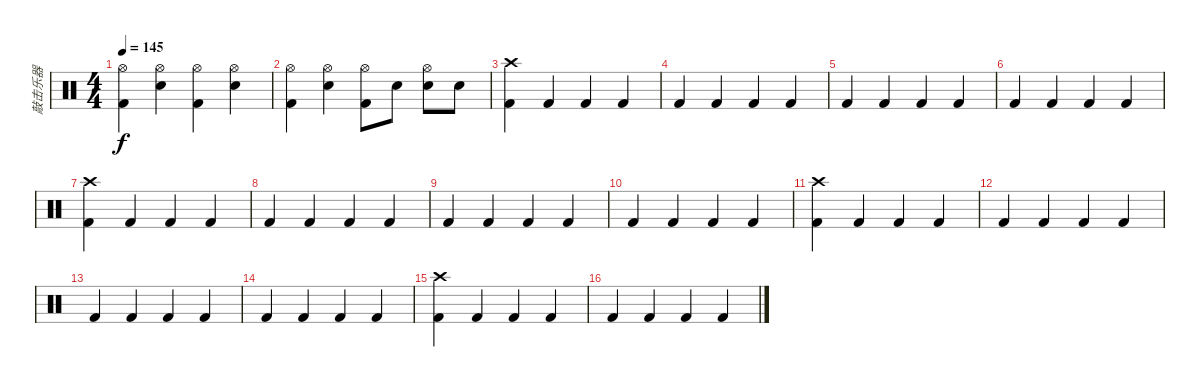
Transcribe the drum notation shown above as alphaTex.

\track ("敲击乐器" "敲击乐器") {instrument percussion}
\staff {score}
\articulation defaults
\ts (4 4)
\tempo 145
\clef neutral
\ks c
("Hi-Hat (open)" "Kick (hit) 2").4{dy f} ("Hi-Hat (open)" "Snare (hit) 2").4 ("Hi-Hat (open)" "Kick (hit) 2").4 ("Hi-Hat (open)" "Snare (hit) 2").4 |
("Hi-Hat (open)" "Kick (hit) 2").4 ("Hi-Hat (open)" "Snare (hit) 2").4 ("Hi-Hat (open)" "Kick (hit) 2").8 "Snare (hit) 2".8 ("Hi-Hat (open)" "Snare (hit) 2").8 "Snare (hit) 2".8 |
("Crash high (hit)" "Kick (hit) 2").4 "Kick (hit) 2".4 "Kick (hit) 2".4 "Kick (hit) 2".4 |
"Kick (hit) 2".4 "Kick (hit) 2".4 "Kick (hit) 2".4 "Kick (hit) 2".4 |
"Kick (hit) 2".4 "Kick (hit) 2".4 "Kick (hit) 2".4 "Kick (hit) 2".4 |
"Kick (hit) 2".4 "Kick (hit) 2".4 "Kick (hit) 2".4 "Kick (hit) 2".4 |
("Crash high (hit)" "Kick (hit) 2").4 "Kick (hit) 2".4 "Kick (hit) 2".4 "Kick (hit) 2".4 |
"Kick (hit) 2".4 "Kick (hit) 2".4 "Kick (hit) 2".4 "Kick (hit) 2".4 |
"Kick (hit) 2".4 "Kick (hit) 2".4 "Kick (hit) 2".4 "Kick (hit) 2".4 |
"Kick (hit) 2".4 "Kick (hit) 2".4 "Kick (hit) 2".4 "Kick (hit) 2".4 |
("Crash high (hit)" "Kick (hit) 2").4 "Kick (hit) 2".4 "Kick (hit) 2".4 "Kick (hit) 2".4 |
"Kick (hit) 2".4 "Kick (hit) 2".4 "Kick (hit) 2".4 "Kick (hit) 2".4 |
"Kick (hit) 2".4 "Kick (hit) 2".4 "Kick (hit) 2".4 "Kick (hit) 2".4 |
"Kick (hit) 2".4 "Kick (hit) 2".4 "Kick (hit) 2".4 "Kick (hit) 2".4 |
("Crash high (hit)" "Kick (hit) 2").4 "Kick (hit) 2".4 "Kick (hit) 2".4 "Kick (hit) 2".4 |
"Kick (hit) 2".4 "Kick (hit) 2".4 "Kick (hit) 2".4 "Kick (hit) 2".4
